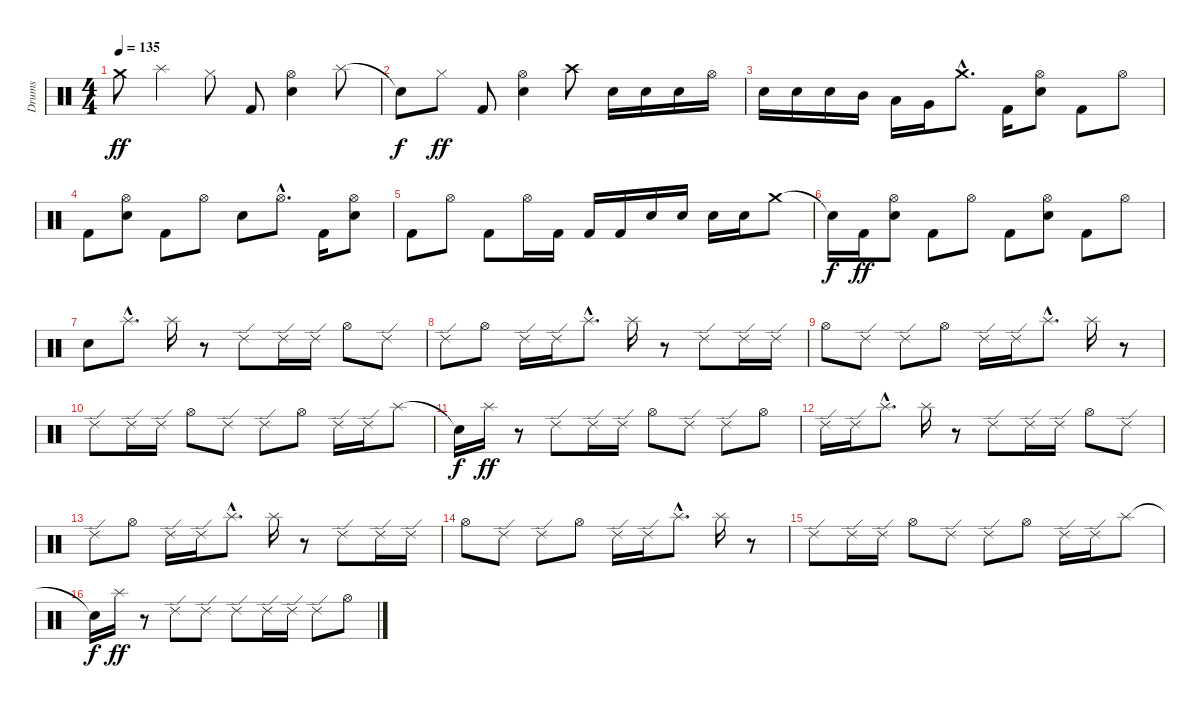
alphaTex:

\track ("Drums" "Drums") {instrument percussion}
\staff {score}
\articulation defaults
\ts (4 4)
\tempo 135
\clef neutral
\ks c "Crash medium (hit)".8{dy ff} "Splash (hit)".4 "Hi-Hat (closed)".8 "Kick (hit) 2".8
("Electric Snare (hit)" "Hi-Hat (open)").4 "Splash (hit)".8 |
"Snare (hit)"{t}.8{dy f} "Hi-Hat (closed)".8{dy ff} "Kick (hit) 2".8 ("Electric Snare (hit)" "Hi-Hat (open)").4 "Crash high (hit)".8 "Electric Snare (hit)".16 "Electric Snare (hit)".16 "Electric Snare (hit)".16 "Hi-Hat (open)".16 |
"Electric Snare (hit)".16 "Electric Snare (hit)".16 "Electric Snare (hit)".16 "Mid Tom (hit)".16 "Low Tom (hit)".16 "Very Low Tom (hit)".16 "Crash medium (hit)"{hac}.8{d} "Kick (hit) 2".16 ("Electric Snare (hit)" "Hi-Hat (open)").8 "Kick (hit) 2".8 "Hi-Hat (open)".8 |
"Kick (hit) 2".8 ("Electric Snare (hit)" "Hi-Hat (open)").8 "Kick (hit) 2".8 "Hi-Hat (open)".8 "Electric Snare (hit)".8 "Hi-Hat (open)"{hac}.8{d} "Kick (hit) 2".16 ("Electric Snare (hit)" "Hi-Hat (open)").8 |
"Kick (hit) 2".8 "Hi-Hat (open)".8 "Kick (hit) 2".8 "Hi-Hat (open)".16 "Kick (hit) 2".16 "Kick (hit) 2".16 "Kick (hit) 2".16 "Electric Snare (hit)".16 "Electric Snare (hit)".16 "Electric Snare (hit)".16 "Electric Snare (hit)".16 "Crash medium (hit)".8 |
"Snare (hit)"{t}.16{dy f} "Kick (hit) 2".16{dy ff} ("Electric Snare (hit)" "Hi-Hat (open)").8 "Kick (hit) 2".8 "Hi-Hat (open)".8 "Kick (hit) 2".8 ("Electric Snare (hit)" "Hi-Hat (open)").8 "Kick (hit) 2".8 "Hi-Hat (open)".8 |
"Electric Snare (hit)".8 "Splash (hit)"{hac}.8{d} "Splash (hit)".16 r.8 "Ride (edge) 2".8 "Ride (edge) 2".16 "Ride (edge) 2".16 "Hi-Hat (open)".8 "Ride (edge) 2".8 |
"Ride (edge) 2".8 "Hi-Hat (open)".8 "Ride (edge) 2".16 "Ride (edge) 2".16 "Splash (hit)"{hac}.8{d} "Splash (hit)".16 r.8 "Ride (edge) 2".8 "Ride (edge) 2".16 "Ride (edge) 2".16 |
"Hi-Hat (open)".8 "Ride (edge) 2".8 "Ride (edge) 2".8 "Hi-Hat (open)".8 "Ride (edge) 2".16 "Ride (edge) 2".16 "Splash (hit)"{hac}.8{d} "Splash (hit)".16 r.8 |
"Ride (edge) 2".8 "Ride (edge) 2".16 "Ride (edge) 2".16 "Hi-Hat (open)".8 "Ride (edge) 2".8 "Ride (edge) 2".8 "Hi-Hat (open)".8 "Ride (edge) 2".16 "Ride (edge) 2".16 "Splash (hit)".8 |
"Snare (hit)"{t}.16{dy f} "Splash (hit)".16{dy ff} r.8 "Ride (edge) 2".8 "Ride (edge) 2".16 "Ride (edge) 2".16 "Hi-Hat (open)".8 "Ride (edge) 2".8 "Ride (edge) 2".8 "Hi-Hat (open)".8 |
"Ride (edge) 2".16 "Ride (edge) 2".16 "Splash (hit)"{hac}.8{d} "Splash (hit)".16 r.8 "Ride (edge) 2".8 "Ride (edge) 2".16 "Ride (edge) 2".16 "Hi-Hat (open)".8 "Ride (edge) 2".8 |
"Ride (edge) 2".8 "Hi-Hat (open)".8 "Ride (edge) 2".16 "Ride (edge) 2".16 "Splash (hit)"{hac}.8{d} "Splash (hit)".16 r.8 "Ride (edge) 2".8 "Ride (edge) 2".16 "Ride (edge) 2".16 |
"Hi-Hat (open)".8 "Ride (edge) 2".8 "Ride (edge) 2".8 "Hi-Hat (open)".8 "Ride (edge) 2".16 "Ride (edge) 2".16 "Splash (hit)"{hac}.8{d} "Splash (hit)".16 r.8 |
"Ride (edge) 2".8 "Ride (edge) 2".16 "Ride (edge) 2".16 "Hi-Hat (open)".8 "Ride (edge) 2".8 "Ride (edge) 2".8 "Hi-Hat (open)".8 "Ride (edge) 2".16 "Ride (edge) 2".16 "Splash (hit)".8 |
"Snare (hit)"{t}.16{dy f} "Splash (hit)".16{dy ff} r.8 "Ride (edge) 2".8 "Ride (edge) 2".8 "Ride (edge) 2".8 "Ride (edge) 2".16 "Ride (edge) 2".16 "Ride (edge) 2".8 "Hi-Hat (open)".8
